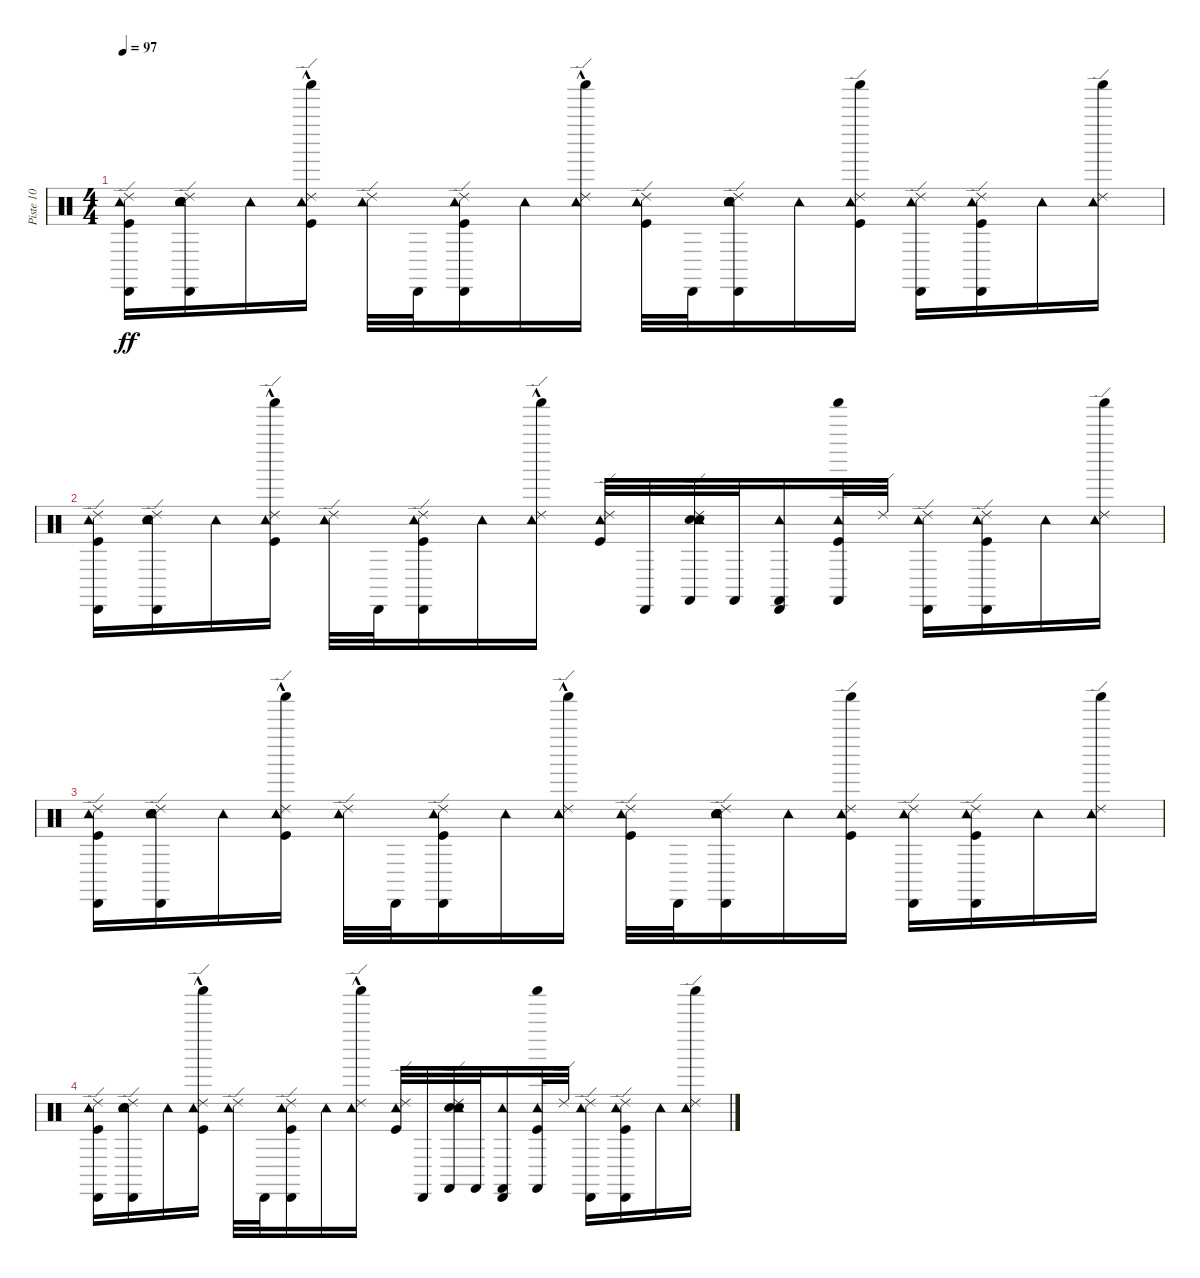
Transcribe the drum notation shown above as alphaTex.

\track ("Piste 10" "Piste 10") {instrument percussion}
\staff {score}
\articulation defaults
\ts (4 4)
\tempo 97
\clef neutral
\ks c
("Cabasa (hit)" "Kick (hit)" "Tambourine (hit)" "Ride (edge) 2").16{dy ff} ("Cabasa (hit)" "Hand Clap (hit)" "Electric Snare (hit)" "Tambourine (hit)" "Ride (edge) 2").16 "Tambourine (hit)".16 ("Shaker (hit)"{hac} "Kick (hit)" "Tambourine (hit)" "Ride (edge) 2").16 ("Tambourine (hit)" "Ride (edge) 2").32 "Cabasa (hit)".32 ("Cabasa (hit)" "Kick (hit)" "Tambourine (hit)" "Ride (edge) 2").16 "Tambourine (hit)".16 ("Shaker (hit)"{hac} "Tambourine (hit)" "Ride (edge) 2").16 ("Kick (hit)" "Tambourine (hit)" "Ride (edge) 2").32 "Cabasa (hit)".32 ("Cabasa (hit)" "Hand Clap (hit)" "Electric Snare (hit)" "Tambourine (hit)" "Ride (edge) 2").16 "Tambourine (hit)".16 ("Shaker (hit)" "Kick (hit)" "Tambourine (hit)" "Ride (edge) 2").16 ("Cabasa (hit)" "Tambourine (hit)" "Ride (edge) 2").16 ("Cabasa (hit)" "Kick (hit)" "Tambourine (hit)" "Ride (edge) 2").16 "Tambourine (hit)".16 ("Shaker (hit)" "Tambourine (hit)" "Ride (edge) 2").16 |
("Cabasa (hit)" "Kick (hit)" "Tambourine (hit)" "Ride (edge) 2").16 ("Cabasa (hit)" "Hand Clap (hit)" "Electric Snare (hit)" "Tambourine (hit)" "Ride (edge) 2").16 "Tambourine (hit)".16 ("Shaker (hit)"{hac} "Kick (hit)" "Tambourine (hit)" "Ride (edge) 2").16 ("Tambourine (hit)" "Ride (edge) 2").32 "Cabasa (hit)".32 ("Cabasa (hit)" "Kick (hit)" "Tambourine (hit)" "Ride (edge) 2").16 "Tambourine (hit)".16 ("Shaker (hit)"{hac} "Tambourine (hit)" "Ride (edge) 2").16 ("Kick (hit)" "Tambourine (hit)" "Ride (edge) 2").32 "Cabasa (hit)".32 ("Castanets (hit)" "Hand Clap (hit)" "Electric Snare (hit)" "Tambourine (hit)" "Ride (edge) 2").32 "Castanets (hit)".32 ("Cabasa (hit)" "Castanets (hit)" "Tambourine (hit)").16 ("Shaker (hit)" "Castanets (hit)" "Kick (hit)" "Tambourine (hit)").32 "Ride (edge) 2".32 ("Cabasa (hit)" "Tambourine (hit)" "Ride (edge) 2").16 ("Cabasa (hit)" "Kick (hit)" "Tambourine (hit)" "Ride (edge) 2").16 "Tambourine (hit)".16 ("Shaker (hit)" "Tambourine (hit)" "Ride (edge) 2").16 |
("Cabasa (hit)" "Kick (hit)" "Tambourine (hit)" "Ride (edge) 2").16 ("Cabasa (hit)" "Hand Clap (hit)" "Electric Snare (hit)" "Tambourine (hit)" "Ride (edge) 2").16 "Tambourine (hit)".16 ("Shaker (hit)"{hac} "Kick (hit)" "Tambourine (hit)" "Ride (edge) 2").16 ("Tambourine (hit)" "Ride (edge) 2").32 "Cabasa (hit)".32 ("Cabasa (hit)" "Kick (hit)" "Tambourine (hit)" "Ride (edge) 2").16 "Tambourine (hit)".16 ("Shaker (hit)"{hac} "Tambourine (hit)" "Ride (edge) 2").16 ("Kick (hit)" "Tambourine (hit)" "Ride (edge) 2").32 "Cabasa (hit)".32 ("Cabasa (hit)" "Hand Clap (hit)" "Electric Snare (hit)" "Tambourine (hit)" "Ride (edge) 2").16 "Tambourine (hit)".16 ("Shaker (hit)" "Kick (hit)" "Tambourine (hit)" "Ride (edge) 2").16 ("Cabasa (hit)" "Tambourine (hit)" "Ride (edge) 2").16 ("Cabasa (hit)" "Kick (hit)" "Tambourine (hit)" "Ride (edge) 2").16 "Tambourine (hit)".16 ("Shaker (hit)" "Tambourine (hit)" "Ride (edge) 2").16 |
("Cabasa (hit)" "Kick (hit)" "Tambourine (hit)" "Ride (edge) 2").16 ("Cabasa (hit)" "Hand Clap (hit)" "Electric Snare (hit)" "Tambourine (hit)" "Ride (edge) 2").16 "Tambourine (hit)".16 ("Shaker (hit)"{hac} "Kick (hit)" "Tambourine (hit)" "Ride (edge) 2").16 ("Tambourine (hit)" "Ride (edge) 2").32 "Cabasa (hit)".32 ("Cabasa (hit)" "Kick (hit)" "Tambourine (hit)" "Ride (edge) 2").16 "Tambourine (hit)".16 ("Shaker (hit)"{hac} "Tambourine (hit)" "Ride (edge) 2").16 ("Kick (hit)" "Tambourine (hit)" "Ride (edge) 2").32 "Cabasa (hit)".32 ("Castanets (hit)" "Hand Clap (hit)" "Electric Snare (hit)" "Tambourine (hit)" "Ride (edge) 2").32 "Castanets (hit)".32 ("Cabasa (hit)" "Castanets (hit)" "Tambourine (hit)").16 ("Shaker (hit)" "Castanets (hit)" "Kick (hit)" "Tambourine (hit)").32 "Ride (edge) 2".32 ("Cabasa (hit)" "Tambourine (hit)" "Ride (edge) 2").16 ("Cabasa (hit)" "Kick (hit)" "Tambourine (hit)" "Ride (edge) 2").16 "Tambourine (hit)".16 ("Shaker (hit)" "Tambourine (hit)" "Ride (edge) 2").16
